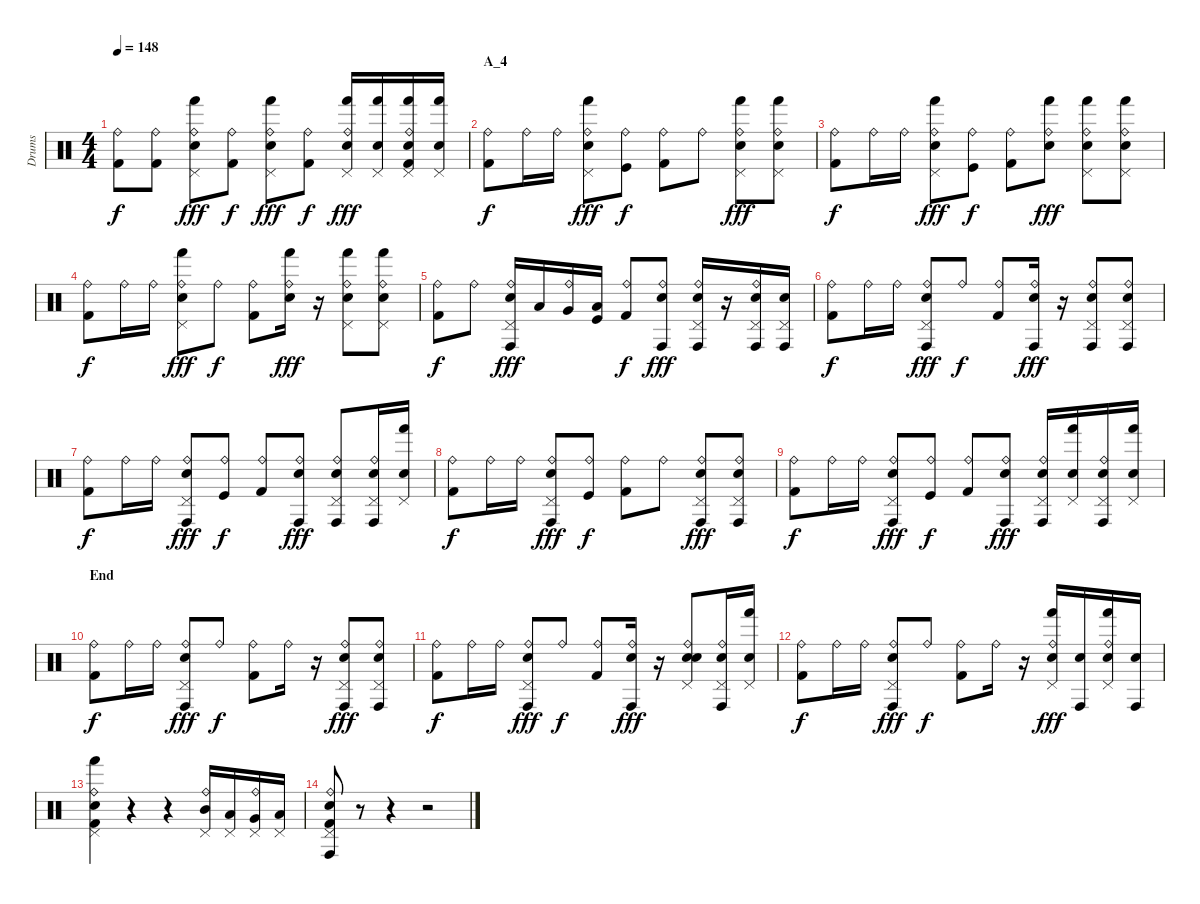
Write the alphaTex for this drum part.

\track ("Drums" "Drums") {instrument percussion}
\staff {score}
\articulation defaults
\ts (4 4)
\tempo 148
\clef neutral
\ks c
("Ride (bell)" "Kick (hit) 2").8{dy f} ("Ride (bell)" "Kick (hit) 2").8 ("Ride (bell)" "Pedal Hi-Hat (hit)" "Hand (hit)" "Electric Snare (hit)").8{dy fff} ("Ride (bell)" "Kick (hit) 2").8{dy f} ("Ride (bell)" "Pedal Hi-Hat (hit)" "Hand (hit)" "Electric Snare (hit)").8{dy fff} ("Ride (bell)" "Kick (hit) 2").8{dy f} ("Ride (bell)" "Pedal Hi-Hat (hit)" "Hand (hit)" "Electric Snare (hit)").16{dy fff} ("Pedal Hi-Hat (hit)" "Hand (hit)" "Electric Snare (hit)").16 ("Ride (bell)" "Pedal Hi-Hat (hit)" "Hand (hit)" "Electric Snare (hit)" "Kick (hit) 2").16 ("Pedal Hi-Hat (hit)" "Hand (hit)" "Electric Snare (hit)").16 |
\section ("" "A_4")
("Ride (bell)" "Kick (hit) 2").8{dy f} "Ride (bell)".16 "Ride (bell)".16 ("Ride (bell)" "Pedal Hi-Hat (hit)" "Hand (hit)" "Electric Snare (hit)").8{dy fff} ("Ride (bell)" "Kick (hit)").8{dy f} ("Ride (bell)" "Kick (hit) 2").8 "Ride (bell)".8 ("Ride (bell)" "Pedal Hi-Hat (hit)" "Hand (hit)" "Electric Snare (hit)").8{dy fff} ("Ride (bell)" "Pedal Hi-Hat (hit)" "Hand (hit)" "Electric Snare (hit)").8 |
("Ride (bell)" "Kick (hit) 2").8{dy f} "Ride (bell)".16 "Ride (bell)".16 ("Ride (bell)" "Pedal Hi-Hat (hit)" "Hand (hit)" "Electric Snare (hit)").8{dy fff} ("Ride (bell)" "Kick (hit)").8{dy f} ("Ride (bell)" "Kick (hit) 2").8 ("Ride (bell)" "Hand (hit)" "Electric Snare (hit)").8{dy fff} ("Ride (bell)" "Pedal Hi-Hat (hit)" "Hand (hit)" "Electric Snare (hit)").8 ("Ride (bell)" "Pedal Hi-Hat (hit)" "Hand (hit)" "Electric Snare (hit)").8 |
("Ride (bell)" "Kick (hit) 2").8{dy f} "Ride (bell)".16 "Ride (bell)".16 ("Ride (bell)" "Pedal Hi-Hat (hit)" "Hand (hit)" "Electric Snare (hit)").8{dy fff} "Ride (bell)".8{dy f} ("Ride (bell)" "Kick (hit) 2").8 ("Ride (bell)" "Hand (hit)" "Electric Snare (hit)").16{dy fff} r.16 ("Ride (bell)" "Pedal Hi-Hat (hit)" "Hand (hit)" "Electric Snare (hit)").8 ("Ride (bell)" "Pedal Hi-Hat (hit)" "Hand (hit)" "Electric Snare (hit)").8 |
("Ride (bell)" "Kick (hit) 2").8{dy f} "Ride (bell)".8 ("Ride (bell)" "Pedal Hi-Hat (hit)" "Conga high (hit)" "Electric Snare (hit)").16{dy fff} "Low Tom (hit)".16 ("Ride (bell)" "Very Low Tom (hit)").16 ("Low Floor Tom (hit)" "Kick (hit)").16 ("Ride (bell)" "Kick (hit) 2").8{dy f} ("Ride (bell)" "Conga high (hit)" "Electric Snare (hit)").8{dy fff} ("Ride (bell)" "Pedal Hi-Hat (hit)" "Conga high (hit)" "Electric Snare (hit)").16 r.16 ("Ride (bell)" "Pedal Hi-Hat (hit)" "Conga high (hit)" "Electric Snare (hit)").16 ("Pedal Hi-Hat (hit)" "Conga high (hit)" "Electric Snare (hit)").16 |
("Ride (bell)" "Kick (hit) 2").8{dy f} "Ride (bell)".16 "Ride (bell)".16 ("Ride (bell)" "Pedal Hi-Hat (hit)" "Conga high (hit)" "Electric Snare (hit)").8{dy fff} "Ride (bell)".8{dy f} ("Ride (bell)" "Kick (hit) 2").8 ("Ride (bell)" "Conga high (hit)" "Electric Snare (hit)").16{dy fff} r.16 ("Ride (bell)" "Pedal Hi-Hat (hit)" "Conga high (hit)" "Electric Snare (hit)").8 ("Ride (bell)" "Pedal Hi-Hat (hit)" "Conga high (hit)" "Electric Snare (hit)").8 |
("Ride (bell)" "Kick (hit) 2").8{dy f} "Ride (bell)".16 "Ride (bell)".16 ("Ride (bell)" "Pedal Hi-Hat (hit)" "Conga high (hit)" "Electric Snare (hit)").8{dy fff} ("Ride (bell)" "Kick (hit)").8{dy f} ("Ride (bell)" "Kick (hit) 2").8 ("Ride (bell)" "Conga high (hit)" "Electric Snare (hit)").8{dy fff} ("Ride (bell)" "Pedal Hi-Hat (hit)" "Conga high (hit)" "Electric Snare (hit)").8 ("Ride (bell)" "Pedal Hi-Hat (hit)" "Conga high (hit)" "Electric Snare (hit)").16 ("Pedal Hi-Hat (hit)" "Hand (hit)" "Electric Snare (hit)").16 |
("Ride (bell)" "Kick (hit) 2").8{dy f} "Ride (bell)".16 "Ride (bell)".16 ("Ride (bell)" "Pedal Hi-Hat (hit)" "Conga high (hit)" "Electric Snare (hit)").8{dy fff} ("Ride (bell)" "Kick (hit)").8{dy f} ("Ride (bell)" "Kick (hit) 2").8 "Ride (bell)".8 ("Ride (bell)" "Pedal Hi-Hat (hit)" "Conga high (hit)" "Electric Snare (hit)").8{dy fff} ("Ride (bell)" "Pedal Hi-Hat (hit)" "Conga high (hit)" "Electric Snare (hit)").8 |
("Ride (bell)" "Kick (hit) 2").8{dy f} "Ride (bell)".16 "Ride (bell)".16 ("Ride (bell)" "Pedal Hi-Hat (hit)" "Conga high (hit)" "Electric Snare (hit)").8{dy fff} ("Ride (bell)" "Kick (hit)").8{dy f} ("Ride (bell)" "Kick (hit) 2").8 ("Ride (bell)" "Conga high (hit)" "Electric Snare (hit)").8{dy fff} ("Ride (bell)" "Pedal Hi-Hat (hit)" "Conga high (hit)" "Electric Snare (hit)").16 ("Pedal Hi-Hat (hit)" "Hand (hit)" "Electric Snare (hit)").16 ("Ride (bell)" "Pedal Hi-Hat (hit)" "Conga high (hit)" "Electric Snare (hit)").16 ("Pedal Hi-Hat (hit)" "Hand (hit)" "Electric Snare (hit)").16 |
\section ("" "End")
("Ride (bell)" "Kick (hit) 2").8{dy f} "Ride (bell)".16 "Ride (bell)".16 ("Ride (bell)" "Pedal Hi-Hat (hit)" "Conga high (hit)" "Electric Snare (hit)").8{dy fff} "Ride (bell)".8{dy f} ("Ride (bell)" "Kick (hit) 2").8 "Ride (bell)".16 r.16 ("Ride (bell)" "Pedal Hi-Hat (hit)" "Conga high (hit)" "Electric Snare (hit)").8{dy fff} ("Ride (bell)" "Pedal Hi-Hat (hit)" "Conga high (hit)" "Electric Snare (hit)").8 |
("Ride (bell)" "Kick (hit) 2").8{dy f} "Ride (bell)".16 "Ride (bell)".16 ("Ride (bell)" "Pedal Hi-Hat (hit)" "Conga high (hit)" "Electric Snare (hit)").8{dy fff} "Ride (bell)".8{dy f} ("Ride (bell)" "Kick (hit) 2").8 ("Ride (bell)" "Conga high (hit)" "Electric Snare (hit)").16{dy fff} r.16 ("Ride (bell)" "Pedal Hi-Hat (hit)" "Snare (hit)" "Electric Snare (hit)").8 ("Ride (bell)" "Pedal Hi-Hat (hit)" "Conga high (hit)" "Electric Snare (hit)").16 ("Pedal Hi-Hat (hit)" "Hand (hit)" "Electric Snare (hit)").16 |
("Ride (bell)" "Kick (hit) 2").8{dy f} "Ride (bell)".16 "Ride (bell)".16 ("Ride (bell)" "Pedal Hi-Hat (hit)" "Conga high (hit)" "Electric Snare (hit)").8{dy fff} "Ride (bell)".8{dy f} ("Ride (bell)" "Kick (hit) 2").8 "Ride (bell)".16 r.16 ("Ride (bell)" "Pedal Hi-Hat (hit)" "Hand (hit)" "Electric Snare (hit)").16{dy fff} ("Conga high (hit)" "Electric Snare (hit)").16 ("Ride (bell)" "Pedal Hi-Hat (hit)" "Hand (hit)" "Electric Snare (hit)").16 ("Conga high (hit)" "Electric Snare (hit)").16 |
("Ride (bell)" "Pedal Hi-Hat (hit)" "Hand (hit)" "Electric Snare (hit)" "Kick (hit) 2").4 r.4 r.4 ("Ride (bell)" "Pedal Hi-Hat (hit)" "Mid Tom (hit)").16 ("Pedal Hi-Hat (hit)" "Low Tom (hit)").16 ("Ride (bell)" "Pedal Hi-Hat (hit)" "Very Low Tom (hit)").16 ("Pedal Hi-Hat (hit)" "Low Floor Tom (hit)").16 |
("Ride (bell)" "Pedal Hi-Hat (hit)" "Conga high (hit)" "Electric Snare (hit)" "Kick (hit) 2").8 r.8 r.4 r.2
